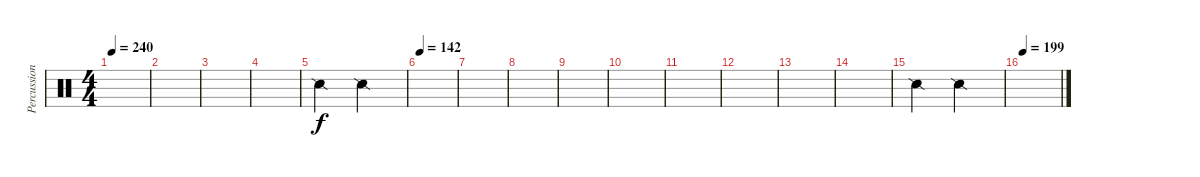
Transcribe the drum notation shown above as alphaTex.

\track ("Percussion" "Percussion") {instrument percussion}
\staff {score}
\articulation defaults
\ts (4 4)
\tempo 240
\clef neutral
\ks c
|
|
|
|
"Snare (side stick) 2".2 "Snare (side stick) 2".2 |
\tempo 142
|
|
|
|
|
|
|
|
|
"Snare (side stick) 2".2 "Snare (side stick) 2".2 |
\tempo 199
